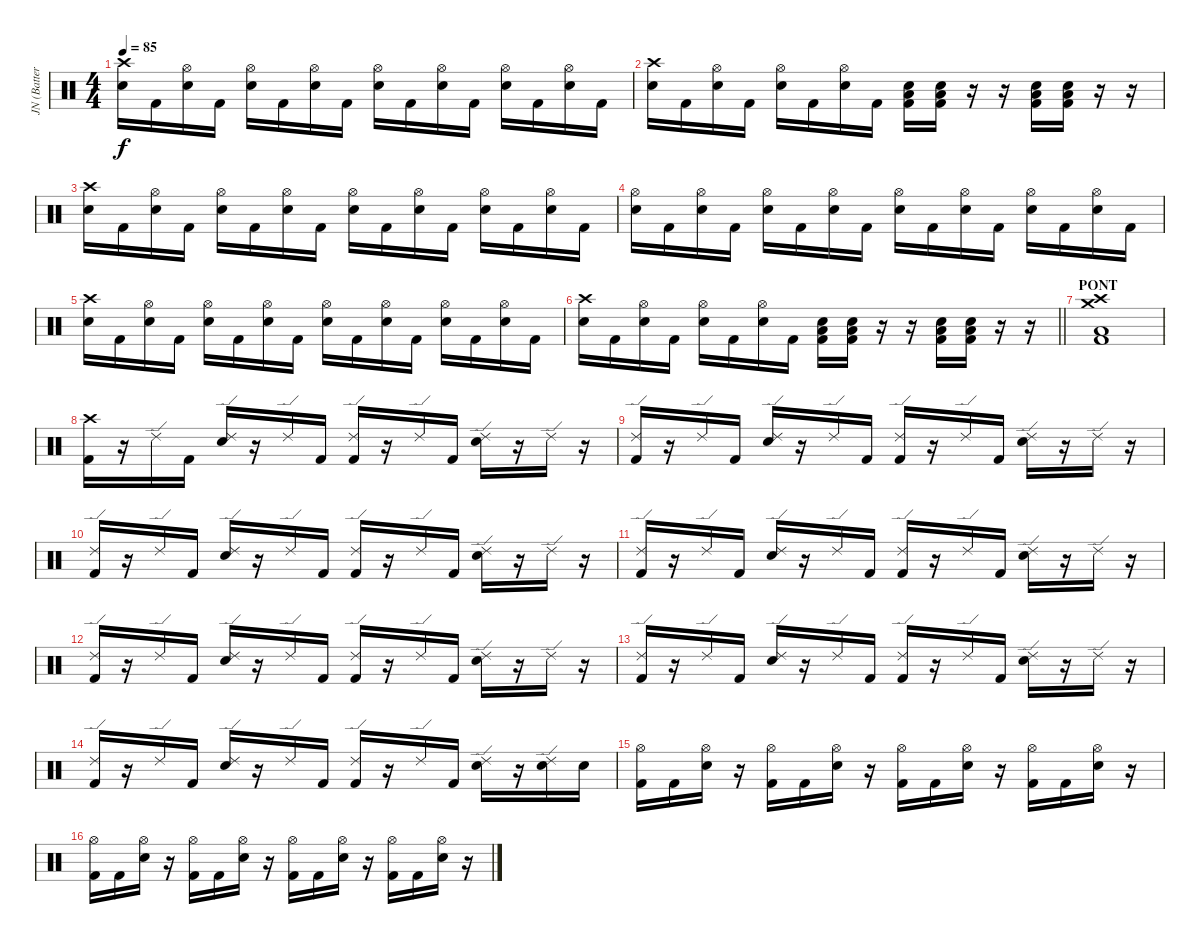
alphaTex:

\track ("JN (Batterie)" "JN (Batter") {instrument percussion}
\staff {score}
\articulation defaults
\ts (4 4)
\tempo 85
\clef neutral
\ks c
("Crash high (hit)" "Electric Snare (hit)").16{dy f} "Kick (hit) 2".16 ("Hi-Hat (open)" "Electric Snare (hit)").16 "Kick (hit) 2".16 ("Hi-Hat (open)" "Electric Snare (hit)").16 "Kick (hit) 2".16 ("Hi-Hat (open)" "Electric Snare (hit)").16 "Kick (hit) 2".16 ("Hi-Hat (open)" "Electric Snare (hit)").16 "Kick (hit) 2".16 ("Hi-Hat (open)" "Electric Snare (hit)").16 "Kick (hit) 2".16 ("Hi-Hat (open)" "Electric Snare (hit)").16 "Kick (hit) 2".16 ("Hi-Hat (open)" "Electric Snare (hit)").16 "Kick (hit) 2".16 |
("Crash high (hit)" "Electric Snare (hit)").16 "Kick (hit) 2".16 ("Hi-Hat (open)" "Electric Snare (hit)").16 "Kick (hit) 2".16 ("Hi-Hat (open)" "Electric Snare (hit)").16 "Kick (hit) 2".16 ("Hi-Hat (open)" "Electric Snare (hit)").16 "Kick (hit) 2".16 ("Electric Snare (hit)" "Kick (hit) 2" "Low Tom (hit)").16 ("Electric Snare (hit)" "Kick (hit) 2" "Low Tom (hit)").16 r.16 r.16 ("Electric Snare (hit)" "Kick (hit) 2" "Low Tom (hit)").16 ("Electric Snare (hit)" "Kick (hit) 2" "Low Tom (hit)").16 r.16 r.16 |
("Crash high (hit)" "Electric Snare (hit)").16 "Kick (hit) 2".16 ("Hi-Hat (open)" "Electric Snare (hit)").16 "Kick (hit) 2".16 ("Hi-Hat (open)" "Electric Snare (hit)").16 "Kick (hit) 2".16 ("Hi-Hat (open)" "Electric Snare (hit)").16 "Kick (hit) 2".16 ("Hi-Hat (open)" "Electric Snare (hit)").16 "Kick (hit) 2".16 ("Hi-Hat (open)" "Electric Snare (hit)").16 "Kick (hit) 2".16 ("Hi-Hat (open)" "Electric Snare (hit)").16 "Kick (hit) 2".16 ("Hi-Hat (open)" "Electric Snare (hit)").16 "Kick (hit) 2".16 |
("Hi-Hat (open)" "Electric Snare (hit)").16 "Kick (hit) 2".16 ("Hi-Hat (open)" "Electric Snare (hit)").16 "Kick (hit) 2".16 ("Hi-Hat (open)" "Electric Snare (hit)").16 "Kick (hit) 2".16 ("Hi-Hat (open)" "Electric Snare (hit)").16 "Kick (hit) 2".16 ("Hi-Hat (open)" "Electric Snare (hit)").16 "Kick (hit) 2".16 ("Hi-Hat (open)" "Electric Snare (hit)").16 "Kick (hit) 2".16 ("Hi-Hat (open)" "Electric Snare (hit)").16 "Kick (hit) 2".16 ("Hi-Hat (open)" "Electric Snare (hit)").16 "Kick (hit) 2".16 |
("Crash high (hit)" "Electric Snare (hit)").16 "Kick (hit) 2".16 ("Hi-Hat (open)" "Electric Snare (hit)").16 "Kick (hit) 2".16 ("Hi-Hat (open)" "Electric Snare (hit)").16 "Kick (hit) 2".16 ("Hi-Hat (open)" "Electric Snare (hit)").16 "Kick (hit) 2".16 ("Hi-Hat (open)" "Electric Snare (hit)").16 "Kick (hit) 2".16 ("Hi-Hat (open)" "Electric Snare (hit)").16 "Kick (hit) 2".16 ("Hi-Hat (open)" "Electric Snare (hit)").16 "Kick (hit) 2".16 ("Hi-Hat (open)" "Electric Snare (hit)").16 "Kick (hit) 2".16 |
\barLineRight lightlight
("Crash high (hit)" "Electric Snare (hit)").16 "Kick (hit) 2".16 ("Hi-Hat (open)" "Electric Snare (hit)").16 "Kick (hit) 2".16 ("Hi-Hat (open)" "Electric Snare (hit)").16 "Kick (hit) 2".16 ("Hi-Hat (open)" "Electric Snare (hit)").16 "Kick (hit) 2".16 ("Electric Snare (hit)" "Kick (hit) 2" "Low Tom (hit)").16 ("Electric Snare (hit)" "Kick (hit) 2" "Low Tom (hit)").16 r.16 r.16 ("Electric Snare (hit)" "Kick (hit) 2" "Low Tom (hit)").16 ("Electric Snare (hit)" "Kick (hit) 2" "Low Tom (hit)").16 r.16 r.16 |
\section ("" "PONT")
("Low Tom (hit)" "Crash medium (hit)" "Crash high (hit)" "Kick (hit) 2").1 |
("Crash high (hit)" "Kick (hit) 2").16 r.16 "Ride (edge) 2".16 "Kick (hit) 2".16 ("Ride (edge) 2" "Electric Snare (hit)").16 r.16 "Ride (edge) 2".16 "Kick (hit) 2".16 ("Ride (edge) 2" "Kick (hit) 2").16 r.16 "Ride (edge) 2".16 "Kick (hit) 2".16 ("Ride (edge) 2" "Electric Snare (hit)").16 r.16 "Ride (edge) 2".16 r.16 |
("Ride (edge) 2" "Kick (hit) 2").16 r.16 "Ride (edge) 2".16 "Kick (hit) 2".16 ("Ride (edge) 2" "Electric Snare (hit)").16 r.16 "Ride (edge) 2".16 "Kick (hit) 2".16 ("Ride (edge) 2" "Kick (hit) 2").16 r.16 "Ride (edge) 2".16 "Kick (hit) 2".16 ("Ride (edge) 2" "Electric Snare (hit)").16 r.16 "Ride (edge) 2".16 r.16 |
("Ride (edge) 2" "Kick (hit) 2").16 r.16 "Ride (edge) 2".16 "Kick (hit) 2".16 ("Ride (edge) 2" "Electric Snare (hit)").16 r.16 "Ride (edge) 2".16 "Kick (hit) 2".16 ("Ride (edge) 2" "Kick (hit) 2").16 r.16 "Ride (edge) 2".16 "Kick (hit) 2".16 ("Ride (edge) 2" "Electric Snare (hit)").16 r.16 "Ride (edge) 2".16 r.16 |
("Ride (edge) 2" "Kick (hit) 2").16 r.16 "Ride (edge) 2".16 "Kick (hit) 2".16 ("Ride (edge) 2" "Electric Snare (hit)").16 r.16 "Ride (edge) 2".16 "Kick (hit) 2".16 ("Ride (edge) 2" "Kick (hit) 2").16 r.16 "Ride (edge) 2".16 "Kick (hit) 2".16 ("Ride (edge) 2" "Electric Snare (hit)").16 r.16 "Ride (edge) 2".16 r.16 |
("Ride (edge) 2" "Kick (hit) 2").16 r.16 "Ride (edge) 2".16 "Kick (hit) 2".16 ("Ride (edge) 2" "Electric Snare (hit)").16 r.16 "Ride (edge) 2".16 "Kick (hit) 2".16 ("Ride (edge) 2" "Kick (hit) 2").16 r.16 "Ride (edge) 2".16 "Kick (hit) 2".16 ("Ride (edge) 2" "Electric Snare (hit)").16 r.16 "Ride (edge) 2".16 r.16 |
("Ride (edge) 2" "Kick (hit) 2").16 r.16 "Ride (edge) 2".16 "Kick (hit) 2".16 ("Ride (edge) 2" "Electric Snare (hit)").16 r.16 "Ride (edge) 2".16 "Kick (hit) 2".16 ("Ride (edge) 2" "Kick (hit) 2").16 r.16 "Ride (edge) 2".16 "Kick (hit) 2".16 ("Ride (edge) 2" "Electric Snare (hit)").16 r.16 "Ride (edge) 2".16 r.16 |
("Ride (edge) 2" "Kick (hit) 2").16 r.16 "Ride (edge) 2".16 "Kick (hit) 2".16 ("Ride (edge) 2" "Electric Snare (hit)").16 r.16 "Ride (edge) 2".16 "Kick (hit) 2".16 ("Ride (edge) 2" "Kick (hit) 2").16 r.16 "Ride (edge) 2".16 "Kick (hit) 2".16 ("Ride (edge) 2" "Electric Snare (hit)").16 r.16 ("Ride (edge) 2" "Electric Snare (hit)").16 "Electric Snare (hit)".16 |
("Hi-Hat (open)" "Kick (hit) 2").16 "Kick (hit) 2".16 ("Hi-Hat (open)" "Electric Snare (hit)").16 r.16 ("Hi-Hat (open)" "Kick (hit) 2").16 "Kick (hit) 2".16 ("Hi-Hat (open)" "Electric Snare (hit)").16 r.16 ("Hi-Hat (open)" "Kick (hit) 2").16 "Kick (hit) 2".16 ("Hi-Hat (open)" "Electric Snare (hit)").16 r.16 ("Hi-Hat (open)" "Kick (hit) 2").16 "Kick (hit) 2".16 ("Hi-Hat (open)" "Electric Snare (hit)").16 r.16 |
("Hi-Hat (open)" "Kick (hit) 2").16 "Kick (hit) 2".16 ("Hi-Hat (open)" "Electric Snare (hit)").16 r.16 ("Hi-Hat (open)" "Kick (hit) 2").16 "Kick (hit) 2".16 ("Hi-Hat (open)" "Electric Snare (hit)").16 r.16 ("Hi-Hat (open)" "Kick (hit) 2").16 "Kick (hit) 2".16 ("Hi-Hat (open)" "Electric Snare (hit)").16 r.16 ("Hi-Hat (open)" "Kick (hit) 2").16 "Kick (hit) 2".16 ("Hi-Hat (open)" "Electric Snare (hit)").16 r.16
